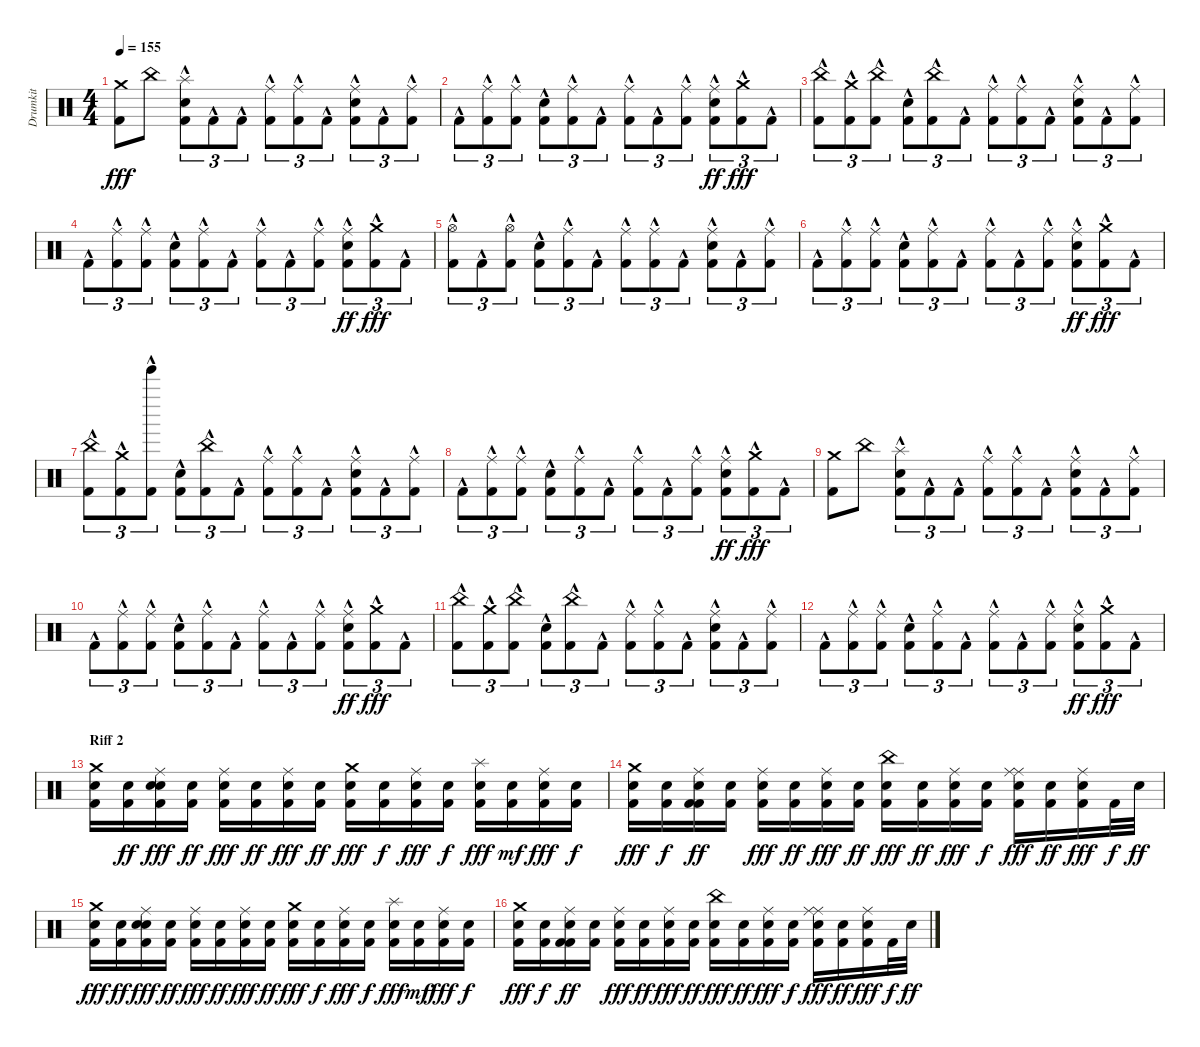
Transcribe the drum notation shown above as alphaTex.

\track ("Drumkit" "Drumkit") {instrument percussion}
\staff {score}
\articulation defaults
\ts (4 4)
\tempo 155
\clef neutral
\ks c
("Kick (hit) 2" "Crash medium (hit)").8{dy fff} "China (hit)".8 ("Kick (hit) 2"{hac} "Snare (hit) 2"{hac} "Splash (hit)").8{tu (3 2)} "Kick (hit) 2"{hac}.8{tu (3 2)} "Kick (hit) 2"{hac}.8{tu (3 2)} ("Kick (hit) 2"{hac} "Ride (middle)"{hac}).8{tu (3 2)} ("Kick (hit) 2"{hac} "Ride (middle)"{hac}).8{tu (3 2)} "Kick (hit) 2"{hac}.8{tu (3 2)} ("Kick (hit) 2"{hac} "Snare (hit) 2"{hac} "Ride (middle)"{hac}).8{tu (3 2)} "Kick (hit) 2"{hac}.8{tu (3 2)} ("Kick (hit) 2"{hac} "Ride (middle)"{hac}).8{tu (3 2)} |
"Kick (hit) 2"{hac}.8{tu (3 2)} ("Kick (hit) 2"{hac} "Ride (middle)"{hac}).8{tu (3 2)} ("Kick (hit) 2"{hac} "Ride (middle)"{hac}).8{tu (3 2)} ("Kick (hit) 2"{hac} "Snare (hit) 2"{hac}).8{tu (3 2)} ("Kick (hit) 2"{hac} "Ride (middle)"{hac}).8{tu (3 2)} "Kick (hit) 2"{hac}.8{tu (3 2)} ("Kick (hit) 2"{hac} "Ride (middle)"{hac}).8{tu (3 2)} "Kick (hit) 2"{hac}.8{tu (3 2)} ("Kick (hit) 2"{hac} "Ride (middle)"{hac}).8{tu (3 2)} ("Kick (hit) 2"{hac} "Snare (hit) 2"{hac} "Ride (middle)"{hac}).8{tu (3 2) dy ff} ("Kick (hit) 2"{hac} "Crash medium (hit)"{hac}).8{tu (3 2) dy fff} "Kick (hit) 2"{hac}.8{tu (3 2)} |
("Kick (hit) 2"{hac} "China (hit)"{hac}).8{tu (3 2)} ("Kick (hit) 2"{hac} "Crash medium (hit)"{hac}).8{tu (3 2)} ("Kick (hit) 2"{hac} "China (hit)"{hac}).8{tu (3 2)} ("Kick (hit) 2"{hac} "Snare (hit) 2"{hac}).8{tu (3 2)} ("Kick (hit) 2"{hac} "China (hit)"{hac}).8{tu (3 2)} "Kick (hit) 2"{hac}.8{tu (3 2)} ("Kick (hit) 2"{hac} "Ride (middle)"{hac}).8{tu (3 2)} ("Kick (hit) 2"{hac} "Ride (middle)"{hac}).8{tu (3 2)} "Kick (hit) 2"{hac}.8{tu (3 2)} ("Kick (hit) 2"{hac} "Snare (hit) 2"{hac} "Ride (middle)"{hac}).8{tu (3 2)} "Kick (hit) 2"{hac}.8{tu (3 2)} ("Kick (hit) 2"{hac} "Ride (middle)"{hac}).8{tu (3 2)} |
"Kick (hit) 2"{hac}.8{tu (3 2)} ("Kick (hit) 2"{hac} "Ride (middle)"{hac}).8{tu (3 2)} ("Kick (hit) 2"{hac} "Ride (middle)"{hac}).8{tu (3 2)} ("Kick (hit) 2"{hac} "Snare (hit) 2"{hac}).8{tu (3 2)} ("Kick (hit) 2"{hac} "Ride (middle)"{hac}).8{tu (3 2)} "Kick (hit) 2"{hac}.8{tu (3 2)} ("Kick (hit) 2"{hac} "Ride (middle)"{hac}).8{tu (3 2)} "Kick (hit) 2"{hac}.8{tu (3 2)} ("Kick (hit) 2"{hac} "Ride (middle)"{hac}).8{tu (3 2)} ("Kick (hit) 2"{hac} "Snare (hit) 2"{hac} "Ride (middle)"{hac}).8{tu (3 2) dy ff} ("Kick (hit) 2"{hac} "Crash medium (hit)"{hac}).8{tu (3 2) dy fff} "Kick (hit) 2"{hac}.8{tu (3 2)} |
("Kick (hit) 2"{hac} "Hi-Hat (open)"{hac}).8{tu (3 2)} "Kick (hit) 2"{hac}.8{tu (3 2)} ("Kick (hit) 2"{hac} "Hi-Hat (open)"{hac}).8{tu (3 2)} ("Kick (hit) 2"{hac} "Snare (hit) 2"{hac}).8{tu (3 2)} ("Kick (hit) 2"{hac} "Ride (middle)"{hac}).8{tu (3 2)} "Kick (hit) 2"{hac}.8{tu (3 2)} ("Kick (hit) 2"{hac} "Ride (middle)"{hac}).8{tu (3 2)} ("Kick (hit) 2"{hac} "Ride (middle)"{hac}).8{tu (3 2)} "Kick (hit) 2"{hac}.8{tu (3 2)} ("Kick (hit) 2"{hac} "Snare (hit) 2"{hac} "Ride (middle)"{hac}).8{tu (3 2)} "Kick (hit) 2"{hac}.8{tu (3 2)} ("Kick (hit) 2"{hac} "Ride (middle)"{hac}).8{tu (3 2)} |
"Kick (hit) 2"{hac}.8{tu (3 2)} ("Kick (hit) 2"{hac} "Ride (middle)"{hac}).8{tu (3 2)} ("Kick (hit) 2"{hac} "Ride (middle)"{hac}).8{tu (3 2)} ("Kick (hit) 2"{hac} "Snare (hit) 2"{hac}).8{tu (3 2)} ("Kick (hit) 2"{hac} "Ride (middle)"{hac}).8{tu (3 2)} "Kick (hit) 2"{hac}.8{tu (3 2)} ("Kick (hit) 2"{hac} "Ride (middle)"{hac}).8{tu (3 2)} "Kick (hit) 2"{hac}.8{tu (3 2)} ("Kick (hit) 2"{hac} "Ride (middle)"{hac}).8{tu (3 2)} ("Kick (hit) 2"{hac} "Snare (hit) 2"{hac} "Ride (middle)"{hac}).8{tu (3 2) dy ff} ("Kick (hit) 2"{hac} "Crash medium (hit)"{hac}).8{tu (3 2) dy fff} "Kick (hit) 2"{hac}.8{tu (3 2)} |
("Kick (hit) 2"{hac} "China (hit)"{hac}).8{tu (3 2)} ("Kick (hit) 2"{hac} "Crash medium (hit)"{hac}).8{tu (3 2)} ("Kick (hit) 2"{hac} "Tinkle Bell (hit)"{hac}).8{tu (3 2)} ("Kick (hit) 2"{hac} "Snare (hit) 2"{hac}).8{tu (3 2)} ("Kick (hit) 2"{hac} "China (hit)"{hac}).8{tu (3 2)} "Kick (hit) 2"{hac}.8{tu (3 2)} ("Kick (hit) 2"{hac} "Ride (middle)"{hac}).8{tu (3 2)} ("Kick (hit) 2"{hac} "Ride (middle)"{hac}).8{tu (3 2)} "Kick (hit) 2"{hac}.8{tu (3 2)} ("Kick (hit) 2"{hac} "Snare (hit) 2"{hac} "Ride (middle)"{hac}).8{tu (3 2)} "Kick (hit) 2"{hac}.8{tu (3 2)} ("Kick (hit) 2"{hac} "Ride (middle)"{hac}).8{tu (3 2)} |
"Kick (hit) 2"{hac}.8{tu (3 2)} ("Kick (hit) 2"{hac} "Ride (middle)"{hac}).8{tu (3 2)} ("Kick (hit) 2"{hac} "Ride (middle)"{hac}).8{tu (3 2)} ("Kick (hit) 2"{hac} "Snare (hit) 2"{hac}).8{tu (3 2)} ("Kick (hit) 2"{hac} "Ride (middle)"{hac}).8{tu (3 2)} "Kick (hit) 2"{hac}.8{tu (3 2)} ("Kick (hit) 2"{hac} "Ride (middle)"{hac}).8{tu (3 2)} "Kick (hit) 2"{hac}.8{tu (3 2)} ("Kick (hit) 2"{hac} "Ride (middle)"{hac}).8{tu (3 2)} ("Kick (hit) 2"{hac} "Snare (hit) 2"{hac} "Ride (middle)"{hac}).8{tu (3 2) dy ff} ("Kick (hit) 2"{hac} "Crash medium (hit)"{hac}).8{tu (3 2) dy fff} "Kick (hit) 2"{hac}.8{tu (3 2)} |
("Kick (hit) 2" "Crash medium (hit)").8 "China (hit)".8 ("Kick (hit) 2"{hac} "Snare (hit) 2"{hac} "Splash (hit)").8{tu (3 2)} "Kick (hit) 2"{hac}.8{tu (3 2)} "Kick (hit) 2"{hac}.8{tu (3 2)} ("Kick (hit) 2"{hac} "Ride (middle)"{hac}).8{tu (3 2)} ("Kick (hit) 2"{hac} "Ride (middle)"{hac}).8{tu (3 2)} "Kick (hit) 2"{hac}.8{tu (3 2)} ("Kick (hit) 2"{hac} "Snare (hit) 2"{hac} "Ride (middle)"{hac}).8{tu (3 2)} "Kick (hit) 2"{hac}.8{tu (3 2)} ("Kick (hit) 2"{hac} "Ride (middle)"{hac}).8{tu (3 2)} |
"Kick (hit) 2"{hac}.8{tu (3 2)} ("Kick (hit) 2"{hac} "Ride (middle)"{hac}).8{tu (3 2)} ("Kick (hit) 2"{hac} "Ride (middle)"{hac}).8{tu (3 2)} ("Kick (hit) 2"{hac} "Snare (hit) 2"{hac}).8{tu (3 2)} ("Kick (hit) 2"{hac} "Ride (middle)"{hac}).8{tu (3 2)} "Kick (hit) 2"{hac}.8{tu (3 2)} ("Kick (hit) 2"{hac} "Ride (middle)"{hac}).8{tu (3 2)} "Kick (hit) 2"{hac}.8{tu (3 2)} ("Kick (hit) 2"{hac} "Ride (middle)"{hac}).8{tu (3 2)} ("Kick (hit) 2"{hac} "Snare (hit) 2"{hac} "Ride (middle)"{hac}).8{tu (3 2) dy ff} ("Kick (hit) 2"{hac} "Crash medium (hit)"{hac}).8{tu (3 2) dy fff} "Kick (hit) 2"{hac}.8{tu (3 2)} |
("Kick (hit) 2"{hac} "China (hit)"{hac}).8{tu (3 2)} ("Kick (hit) 2"{hac} "Crash medium (hit)"{hac}).8{tu (3 2)} ("Kick (hit) 2"{hac} "China (hit)"{hac}).8{tu (3 2)} ("Kick (hit) 2"{hac} "Snare (hit) 2"{hac}).8{tu (3 2)} ("Kick (hit) 2"{hac} "China (hit)"{hac}).8{tu (3 2)} "Kick (hit) 2"{hac}.8{tu (3 2)} ("Kick (hit) 2"{hac} "Ride (middle)"{hac}).8{tu (3 2)} ("Kick (hit) 2"{hac} "Ride (middle)"{hac}).8{tu (3 2)} "Kick (hit) 2"{hac}.8{tu (3 2)} ("Kick (hit) 2"{hac} "Snare (hit) 2"{hac} "Ride (middle)"{hac}).8{tu (3 2)} "Kick (hit) 2"{hac}.8{tu (3 2)} ("Kick (hit) 2"{hac} "Ride (middle)"{hac}).8{tu (3 2)} |
"Kick (hit) 2"{hac}.8{tu (3 2)} ("Kick (hit) 2"{hac} "Ride (middle)"{hac}).8{tu (3 2)} ("Kick (hit) 2"{hac} "Ride (middle)"{hac}).8{tu (3 2)} ("Kick (hit) 2"{hac} "Snare (hit) 2"{hac}).8{tu (3 2)} ("Kick (hit) 2"{hac} "Ride (middle)"{hac}).8{tu (3 2)} "Kick (hit) 2"{hac}.8{tu (3 2)} ("Kick (hit) 2"{hac} "Ride (middle)"{hac}).8{tu (3 2)} "Kick (hit) 2"{hac}.8{tu (3 2)} ("Kick (hit) 2"{hac} "Ride (middle)"{hac}).8{tu (3 2)} ("Kick (hit) 2"{hac} "Snare (hit) 2"{hac} "Ride (middle)"{hac}).8{tu (3 2) dy ff} ("Kick (hit) 2"{hac} "Crash medium (hit)"{hac}).8{tu (3 2) dy fff} "Kick (hit) 2"{hac}.8{tu (3 2)} |
\section ("" "Riff 2")
("Kick (hit) 2" "Snare (hit) 2" "Crash medium (hit)").16 ("Kick (hit) 2" "Snare (hit) 2").16{dy ff} ("Kick (hit) 2" "Snare (hit) 2" "Snare (hit) 2" "Ride (middle)").16{dy fff} ("Kick (hit) 2" "Snare (hit) 2").16{dy ff} ("Kick (hit) 2" "Snare (hit) 2" "Ride (middle)").16{dy fff} ("Kick (hit) 2" "Snare (hit) 2").16{dy ff} ("Kick (hit) 2" "Snare (hit) 2" "Ride (middle)").16{dy fff} ("Kick (hit) 2" "Snare (hit) 2").16{dy ff} ("Kick (hit) 2" "Snare (hit) 2" "Crash medium (hit)").16{dy fff} ("Kick (hit) 2" "Snare (hit) 2").16{dy f} ("Kick (hit) 2" "Snare (hit) 2" "Ride (middle)").16{dy fff} ("Kick (hit) 2" "Snare (hit) 2").16{dy f} ("Kick (hit) 2" "Snare (hit) 2" "Splash (hit)").16{dy fff} ("Kick (hit) 2" "Snare (hit) 2").16{dy mf} ("Kick (hit) 2" "Snare (hit) 2" "Ride (middle)").16{dy fff} ("Kick (hit) 2" "Snare (hit) 2").16{dy f} |
("Kick (hit) 2" "Snare (hit) 2" "Crash medium (hit)").16{dy fff} ("Kick (hit) 2" "Snare (hit) 2").16{dy f} ("Kick (hit) 2" "Kick (hit) 2" "Snare (hit) 2" "Ride (middle)").16{dy ff} ("Kick (hit) 2" "Snare (hit) 2").16 ("Kick (hit) 2" "Snare (hit) 2" "Ride (middle)").16{dy fff} ("Kick (hit) 2" "Snare (hit) 2").16{dy ff} ("Kick (hit) 2" "Snare (hit) 2" "Ride (middle)").16{dy fff} ("Kick (hit) 2" "Snare (hit) 2").16{dy ff} ("Kick (hit) 2" "Snare (hit) 2" "China (hit)").16{dy fff} ("Kick (hit) 2" "Snare (hit) 2").16{dy ff} ("Kick (hit) 2" "Snare (hit) 2" "Ride (middle)").16{dy fff} ("Kick (hit) 2" "Snare (hit) 2").16{dy f} ("Kick (hit) 2" "Snare (hit) 2" "Ride (middle)" "Ride (middle)").16{dy fff} ("Kick (hit) 2" "Snare (hit) 2").16{dy ff} ("Kick (hit) 2" "Snare (hit) 2" "Ride (middle)").16{dy fff} "Kick (hit) 2".32{dy f} "Snare (hit) 2".32{dy ff} |
("Kick (hit) 2" "Snare (hit) 2" "Crash medium (hit)").16{dy fff} ("Kick (hit) 2" "Snare (hit) 2").16{dy ff} ("Kick (hit) 2" "Snare (hit) 2" "Snare (hit) 2" "Ride (middle)").16{dy fff} ("Kick (hit) 2" "Snare (hit) 2").16{dy ff} ("Kick (hit) 2" "Snare (hit) 2" "Ride (middle)").16{dy fff} ("Kick (hit) 2" "Snare (hit) 2").16{dy ff} ("Kick (hit) 2" "Snare (hit) 2" "Ride (middle)").16{dy fff} ("Kick (hit) 2" "Snare (hit) 2").16{dy ff} ("Kick (hit) 2" "Snare (hit) 2" "Crash medium (hit)").16{dy fff} ("Kick (hit) 2" "Snare (hit) 2").16{dy f} ("Kick (hit) 2" "Snare (hit) 2" "Ride (middle)").16{dy fff} ("Kick (hit) 2" "Snare (hit) 2").16{dy f} ("Kick (hit) 2" "Snare (hit) 2" "Splash (hit)").16{dy fff} ("Kick (hit) 2" "Snare (hit) 2").16{dy mf} ("Kick (hit) 2" "Snare (hit) 2" "Ride (middle)").16{dy fff} ("Kick (hit) 2" "Snare (hit) 2").16{dy f} |
("Kick (hit) 2" "Snare (hit) 2" "Crash medium (hit)").16{dy fff} ("Kick (hit) 2" "Snare (hit) 2").16{dy f} ("Kick (hit) 2" "Kick (hit) 2" "Snare (hit) 2" "Ride (middle)").16{dy ff} ("Kick (hit) 2" "Snare (hit) 2").16 ("Kick (hit) 2" "Snare (hit) 2" "Ride (middle)").16{dy fff} ("Kick (hit) 2" "Snare (hit) 2").16{dy ff} ("Kick (hit) 2" "Snare (hit) 2" "Ride (middle)").16{dy fff} ("Kick (hit) 2" "Snare (hit) 2").16{dy ff} ("Kick (hit) 2" "Snare (hit) 2" "China (hit)").16{dy fff} ("Kick (hit) 2" "Snare (hit) 2").16{dy ff} ("Kick (hit) 2" "Snare (hit) 2" "Ride (middle)").16{dy fff} ("Kick (hit) 2" "Snare (hit) 2").16{dy f} ("Kick (hit) 2" "Snare (hit) 2" "Ride (middle)" "Ride (middle)").16{dy fff} ("Kick (hit) 2" "Snare (hit) 2").16{dy ff} ("Kick (hit) 2" "Snare (hit) 2" "Ride (middle)").16{dy fff} "Kick (hit) 2".32{dy f} "Snare (hit) 2".32{dy ff}
